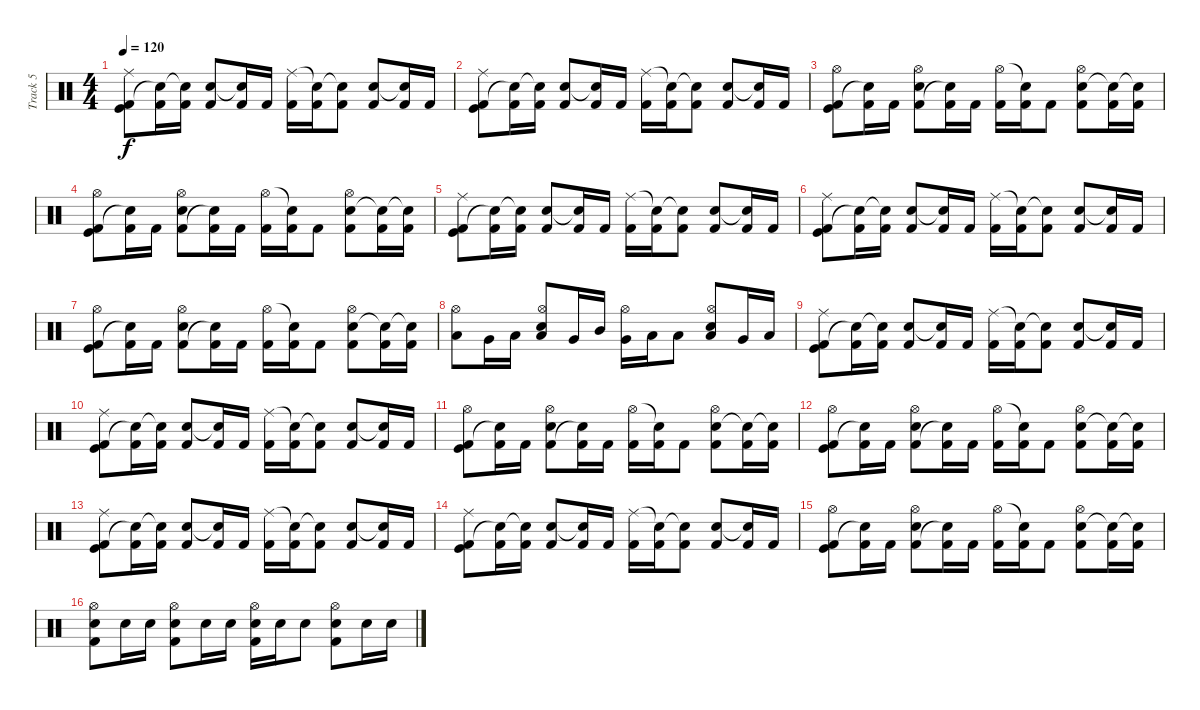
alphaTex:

\track ("Track 5" "Track 5") {instrument percussion}
\staff {score}
\articulation defaults
\ts (4 4)
\tempo 120
\clef neutral
\ks c
("Kick (hit)" "Kick (hit) 2" "Ride (middle)").8{dy f} ("Kick (hit) 2" "Snare (hit)"{t}).16 ("Kick (hit) 2" "Snare (hit)"{t}).16 ("Kick (hit) 2" "Snare (hit) 2").8 ("Kick (hit) 2" "Snare (hit)"{t}).16 "Kick (hit) 2".16 ("Kick (hit) 2" "Ride (middle)").16 ("Kick (hit) 2" "Snare (hit)"{t}).16 ("Kick (hit) 2" "Snare (hit)"{t}).8 ("Kick (hit) 2" "Snare (hit) 2").8 ("Kick (hit) 2" "Snare (hit)"{t}).16 "Kick (hit) 2".16 |
("Kick (hit)" "Kick (hit) 2" "Ride (middle)").8 ("Kick (hit) 2" "Snare (hit)"{t}).16 ("Kick (hit) 2" "Snare (hit)"{t}).16 ("Kick (hit) 2" "Snare (hit) 2").8 ("Kick (hit) 2" "Snare (hit)"{t}).16 "Kick (hit) 2".16 ("Kick (hit) 2" "Ride (middle)").16 ("Kick (hit) 2" "Snare (hit)"{t}).16 ("Kick (hit) 2" "Snare (hit)"{t}).8 ("Kick (hit) 2" "Snare (hit) 2").8 ("Kick (hit) 2" "Snare (hit)"{t}).16 "Kick (hit) 2".16 |
("Kick (hit)" "Kick (hit) 2" "Hi-Hat (open)").8 ("Kick (hit) 2" "Snare (hit)"{t}).16 "Kick (hit) 2".16 ("Snare (hit) 2" "Kick (hit) 2" "Hi-Hat (open)").8 ("Kick (hit) 2" "Snare (hit)"{t}).16 "Kick (hit) 2".16 ("Kick (hit) 2" "Hi-Hat (open)").16 ("Kick (hit) 2" "Snare (hit)"{t}).16 "Kick (hit) 2".8 ("Kick (hit) 2" "Snare (hit) 2" "Hi-Hat (open)").8 ("Kick (hit) 2" "Snare (hit)"{t}).16 ("Kick (hit) 2" "Snare (hit)"{t}).16 |
("Kick (hit)" "Kick (hit) 2" "Hi-Hat (open)").8 ("Kick (hit) 2" "Snare (hit)"{t}).16 "Kick (hit) 2".16 ("Snare (hit) 2" "Kick (hit) 2" "Hi-Hat (open)").8 ("Kick (hit) 2" "Snare (hit)"{t}).16 "Kick (hit) 2".16 ("Kick (hit) 2" "Hi-Hat (open)").16 ("Kick (hit) 2" "Snare (hit)"{t}).16 "Kick (hit) 2".8 ("Kick (hit) 2" "Snare (hit) 2" "Hi-Hat (open)").8 ("Kick (hit) 2" "Snare (hit)"{t}).16 ("Kick (hit) 2" "Snare (hit)"{t}).16 |
("Kick (hit)" "Kick (hit) 2" "Ride (middle)").8 ("Kick (hit) 2" "Snare (hit)"{t}).16 ("Kick (hit) 2" "Snare (hit)"{t}).16 ("Kick (hit) 2" "Snare (hit) 2").8 ("Kick (hit) 2" "Snare (hit)"{t}).16 "Kick (hit) 2".16 ("Kick (hit) 2" "Ride (middle)").16 ("Kick (hit) 2" "Snare (hit)"{t}).16 ("Kick (hit) 2" "Snare (hit)"{t}).8 ("Kick (hit) 2" "Snare (hit) 2").8 ("Kick (hit) 2" "Snare (hit)"{t}).16 "Kick (hit) 2".16 |
("Kick (hit)" "Kick (hit) 2" "Ride (middle)").8 ("Kick (hit) 2" "Snare (hit)"{t}).16 ("Kick (hit) 2" "Snare (hit)"{t}).16 ("Kick (hit) 2" "Snare (hit) 2").8 ("Kick (hit) 2" "Snare (hit)"{t}).16 "Kick (hit) 2".16 ("Kick (hit) 2" "Ride (middle)").16 ("Kick (hit) 2" "Snare (hit)"{t}).16 ("Kick (hit) 2" "Snare (hit)"{t}).8 ("Kick (hit) 2" "Snare (hit) 2").8 ("Kick (hit) 2" "Snare (hit)"{t}).16 "Kick (hit) 2".16 |
("Kick (hit)" "Kick (hit) 2" "Hi-Hat (open)").8 ("Kick (hit) 2" "Snare (hit)"{t}).16 "Kick (hit) 2".16 ("Snare (hit) 2" "Kick (hit) 2" "Hi-Hat (open)").8 ("Kick (hit) 2" "Snare (hit)"{t}).16 "Kick (hit) 2".16 ("Kick (hit) 2" "Hi-Hat (open)").16 ("Kick (hit) 2" "Snare (hit)"{t}).16 "Kick (hit) 2".8 ("Kick (hit) 2" "Snare (hit) 2" "Hi-Hat (open)").8 ("Kick (hit) 2" "Snare (hit)"{t}).16 ("Kick (hit) 2" "Snare (hit)"{t}).16 |
("Low Floor Tom (hit)" "Hi-Hat (open)").8 "Very Low Tom (hit)".16 "Low Tom (hit)".16 ("Low Floor Tom (hit)" "Snare (hit) 2" "Hi-Hat (open)").8 "Very Low Tom (hit)".16 "Mid Tom (hit)".16 ("Very Low Tom (hit)" "Hi-Hat (open)").16 "Low Tom (hit)".16 "Low Floor Tom (hit)".8 ("Low Floor Tom (hit)" "Snare (hit) 2" "Hi-Hat (open)").8 "Very Low Tom (hit)".16 "Low Tom (hit)".16 |
("Kick (hit)" "Kick (hit) 2" "Ride (middle)").8 ("Kick (hit) 2" "Snare (hit)"{t}).16 ("Kick (hit) 2" "Snare (hit)"{t}).16 ("Kick (hit) 2" "Snare (hit) 2").8 ("Kick (hit) 2" "Snare (hit)"{t}).16 "Kick (hit) 2".16 ("Kick (hit) 2" "Ride (middle)").16 ("Kick (hit) 2" "Snare (hit)"{t}).16 ("Kick (hit) 2" "Snare (hit)"{t}).8 ("Kick (hit) 2" "Snare (hit) 2").8 ("Kick (hit) 2" "Snare (hit)"{t}).16 "Kick (hit) 2".16 |
("Kick (hit)" "Kick (hit) 2" "Ride (middle)").8 ("Kick (hit) 2" "Snare (hit)"{t}).16 ("Kick (hit) 2" "Snare (hit)"{t}).16 ("Kick (hit) 2" "Snare (hit) 2").8 ("Kick (hit) 2" "Snare (hit)"{t}).16 "Kick (hit) 2".16 ("Kick (hit) 2" "Ride (middle)").16 ("Kick (hit) 2" "Snare (hit)"{t}).16 ("Kick (hit) 2" "Snare (hit)"{t}).8 ("Kick (hit) 2" "Snare (hit) 2").8 ("Kick (hit) 2" "Snare (hit)"{t}).16 "Kick (hit) 2".16 |
("Kick (hit)" "Kick (hit) 2" "Hi-Hat (open)").8 ("Kick (hit) 2" "Snare (hit)"{t}).16 "Kick (hit) 2".16 ("Snare (hit) 2" "Kick (hit) 2" "Hi-Hat (open)").8 ("Kick (hit) 2" "Snare (hit)"{t}).16 "Kick (hit) 2".16 ("Kick (hit) 2" "Hi-Hat (open)").16 ("Kick (hit) 2" "Snare (hit)"{t}).16 "Kick (hit) 2".8 ("Kick (hit) 2" "Snare (hit) 2" "Hi-Hat (open)").8 ("Kick (hit) 2" "Snare (hit)"{t}).16 ("Kick (hit) 2" "Snare (hit)"{t}).16 |
("Kick (hit)" "Kick (hit) 2" "Hi-Hat (open)").8 ("Kick (hit) 2" "Snare (hit)"{t}).16 "Kick (hit) 2".16 ("Snare (hit) 2" "Kick (hit) 2" "Hi-Hat (open)").8 ("Kick (hit) 2" "Snare (hit)"{t}).16 "Kick (hit) 2".16 ("Kick (hit) 2" "Hi-Hat (open)").16 ("Kick (hit) 2" "Snare (hit)"{t}).16 "Kick (hit) 2".8 ("Kick (hit) 2" "Snare (hit) 2" "Hi-Hat (open)").8 ("Kick (hit) 2" "Snare (hit)"{t}).16 ("Kick (hit) 2" "Snare (hit)"{t}).16 |
("Kick (hit)" "Kick (hit) 2" "Ride (middle)").8 ("Kick (hit) 2" "Snare (hit)"{t}).16 ("Kick (hit) 2" "Snare (hit)"{t}).16 ("Kick (hit) 2" "Snare (hit) 2").8 ("Kick (hit) 2" "Snare (hit)"{t}).16 "Kick (hit) 2".16 ("Kick (hit) 2" "Ride (middle)").16 ("Kick (hit) 2" "Snare (hit)"{t}).16 ("Kick (hit) 2" "Snare (hit)"{t}).8 ("Kick (hit) 2" "Snare (hit) 2").8 ("Kick (hit) 2" "Snare (hit)"{t}).16 "Kick (hit) 2".16 |
("Kick (hit)" "Kick (hit) 2" "Ride (middle)").8 ("Kick (hit) 2" "Snare (hit)"{t}).16 ("Kick (hit) 2" "Snare (hit)"{t}).16 ("Kick (hit) 2" "Snare (hit) 2").8 ("Kick (hit) 2" "Snare (hit)"{t}).16 "Kick (hit) 2".16 ("Kick (hit) 2" "Ride (middle)").16 ("Kick (hit) 2" "Snare (hit)"{t}).16 ("Kick (hit) 2" "Snare (hit)"{t}).8 ("Kick (hit) 2" "Snare (hit) 2").8 ("Kick (hit) 2" "Snare (hit)"{t}).16 "Kick (hit) 2".16 |
("Kick (hit)" "Kick (hit) 2" "Hi-Hat (open)").8 ("Kick (hit) 2" "Snare (hit)"{t}).16 "Kick (hit) 2".16 ("Snare (hit) 2" "Kick (hit) 2" "Hi-Hat (open)").8 ("Kick (hit) 2" "Snare (hit)"{t}).16 "Kick (hit) 2".16 ("Kick (hit) 2" "Hi-Hat (open)").16 ("Kick (hit) 2" "Snare (hit)"{t}).16 "Kick (hit) 2".8 ("Kick (hit) 2" "Snare (hit) 2" "Hi-Hat (open)").8 ("Kick (hit) 2" "Snare (hit)"{t}).16 ("Kick (hit) 2" "Snare (hit)"{t}).16 |
("Snare (hit) 2" "Hi-Hat (open)" "Kick (hit) 2").8 "Snare (hit) 2".16 "Snare (hit) 2".16 ("Snare (hit) 2" "Hi-Hat (open)" "Kick (hit) 2").8 "Snare (hit) 2".16 "Snare (hit) 2".16 ("Snare (hit) 2" "Hi-Hat (open)" "Kick (hit) 2").16 "Snare (hit) 2".16 "Snare (hit) 2".8 ("Snare (hit) 2" "Hi-Hat (open)" "Kick (hit) 2").8 "Snare (hit) 2".16 "Snare (hit) 2".16
